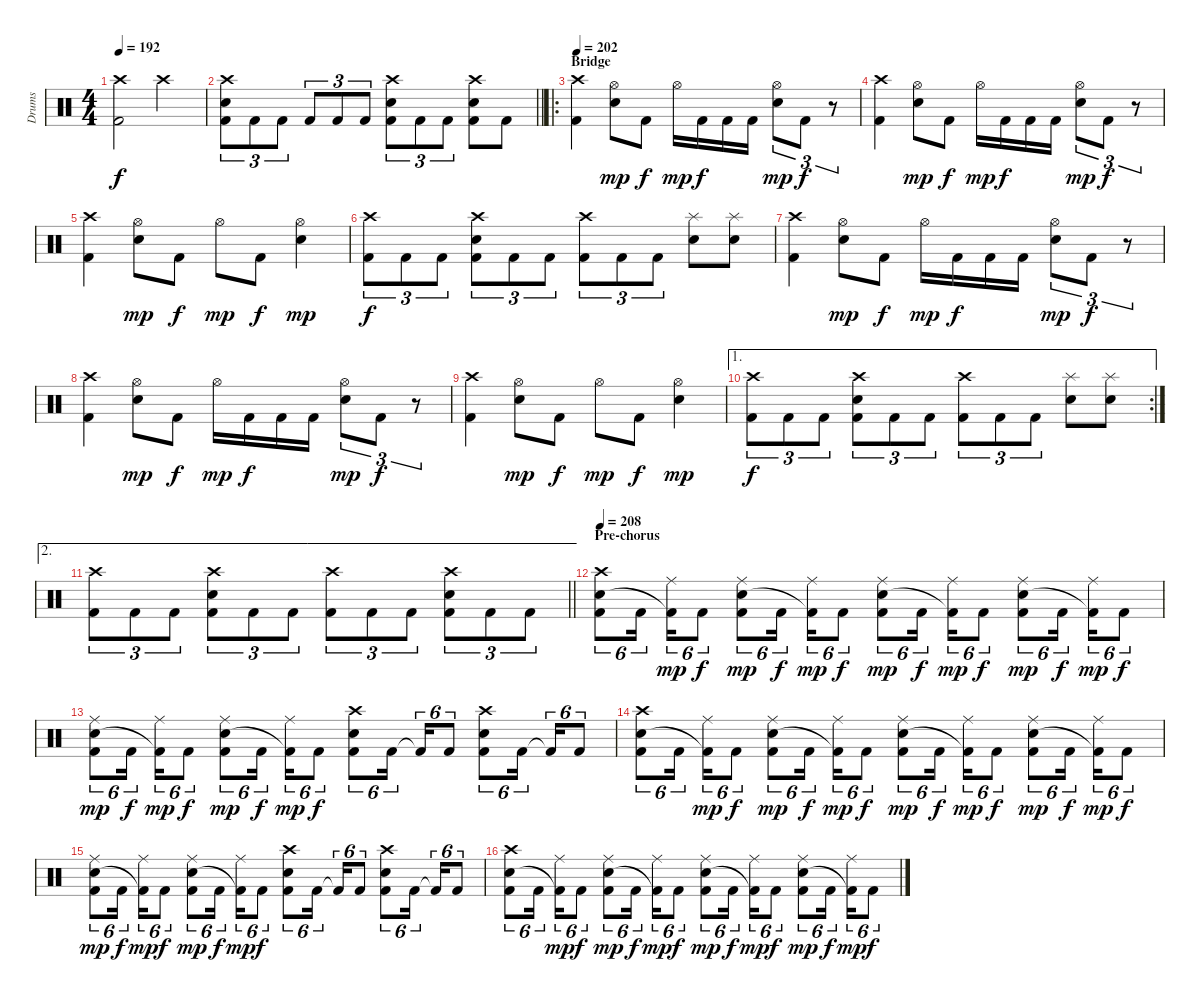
\track ("Drums" "Drums") {instrument percussion}
\staff {score}
\articulation defaults
\ts (4 4)
\tempo 192
\clef neutral
\ks c
("Crash high (hit)" "Kick (hit) 2").2{dy f} "Crash high (hit)".2 |
\barLineRight lightlight
("Crash high (hit)" "Electric Snare (hit)" "Kick (hit) 2").8{tu (3 2)} "Kick (hit) 2".8{tu (3 2)} "Kick (hit) 2".8{tu (3 2)} "Kick (hit) 2".8{tu (3 2)} "Kick (hit) 2".8{tu (3 2)} "Kick (hit) 2".8{tu (3 2)} ("Crash high (hit)" "Electric Snare (hit)" "Kick (hit) 2").8{tu (3 2)} "Kick (hit) 2".8{tu (3 2)} "Kick (hit) 2".8{tu (3 2)} ("Crash high (hit)" "Electric Snare (hit)" "Kick (hit) 2").8 "Kick (hit) 2".8 |
\ro
\section ("" "Bridge")
\tempo 202
("Crash high (hit)" "Kick (hit) 2").4 ("Hi-Hat (open)" "Electric Snare (hit)").8{dy mp} "Kick (hit) 2".8{dy f} "Hi-Hat (open)".16{dy mp} "Kick (hit) 2".16{dy f} "Kick (hit) 2".16 "Kick (hit) 2".16 ("Hi-Hat (open)" "Electric Snare (hit)").8{tu (3 2) dy mp} "Kick (hit) 2".8{tu (3 2) dy f} r.8{tu (3 2)} |
("Crash high (hit)" "Kick (hit) 2").4 ("Hi-Hat (open)" "Electric Snare (hit)").8{dy mp} "Kick (hit) 2".8{dy f} "Hi-Hat (open)".16{dy mp} "Kick (hit) 2".16{dy f} "Kick (hit) 2".16 "Kick (hit) 2".16 ("Hi-Hat (open)" "Electric Snare (hit)").8{tu (3 2) dy mp} "Kick (hit) 2".8{tu (3 2) dy f} r.8{tu (3 2)} |
("Crash high (hit)" "Kick (hit) 2").4 ("Hi-Hat (open)" "Electric Snare (hit)").8{dy mp} "Kick (hit) 2".8{dy f} "Hi-Hat (open)".8{dy mp} "Kick (hit) 2".8{dy f} ("Hi-Hat (open)" "Electric Snare (hit)").4{dy mp} |
("Crash high (hit)" "Kick (hit) 2").8{tu (3 2) dy f} "Kick (hit) 2".8{tu (3 2)} "Kick (hit) 2".8{tu (3 2)} ("Crash high (hit)" "Electric Snare (hit)" "Kick (hit) 2").8{tu (3 2)} "Kick (hit) 2".8{tu (3 2)} "Kick (hit) 2".8{tu (3 2)} ("Crash high (hit)" "Kick (hit) 2").8{tu (3 2)} "Kick (hit) 2".8{tu (3 2)} "Kick (hit) 2".8{tu (3 2)} ("Splash (hit)" "Electric Snare (hit)").8 ("Splash (hit)" "Electric Snare (hit)").8 |
("Crash high (hit)" "Kick (hit) 2").4 ("Hi-Hat (open)" "Electric Snare (hit)").8{dy mp} "Kick (hit) 2".8{dy f} "Hi-Hat (open)".16{dy mp} "Kick (hit) 2".16{dy f} "Kick (hit) 2".16 "Kick (hit) 2".16 ("Hi-Hat (open)" "Electric Snare (hit)").8{tu (3 2) dy mp} "Kick (hit) 2".8{tu (3 2) dy f} r.8{tu (3 2)} |
("Crash high (hit)" "Kick (hit) 2").4 ("Hi-Hat (open)" "Electric Snare (hit)").8{dy mp} "Kick (hit) 2".8{dy f} "Hi-Hat (open)".16{dy mp} "Kick (hit) 2".16{dy f} "Kick (hit) 2".16 "Kick (hit) 2".16 ("Hi-Hat (open)" "Electric Snare (hit)").8{tu (3 2) dy mp} "Kick (hit) 2".8{tu (3 2) dy f} r.8{tu (3 2)} |
("Crash high (hit)" "Kick (hit) 2").4 ("Hi-Hat (open)" "Electric Snare (hit)").8{dy mp} "Kick (hit) 2".8{dy f} "Hi-Hat (open)".8{dy mp} "Kick (hit) 2".8{dy f} ("Hi-Hat (open)" "Electric Snare (hit)").4{dy mp} |
\ae 1
\rc 2
("Crash high (hit)" "Kick (hit) 2").8{tu (3 2) dy f} "Kick (hit) 2".8{tu (3 2)} "Kick (hit) 2".8{tu (3 2)} ("Crash high (hit)" "Electric Snare (hit)" "Kick (hit) 2").8{tu (3 2)} "Kick (hit) 2".8{tu (3 2)} "Kick (hit) 2".8{tu (3 2)} ("Crash high (hit)" "Kick (hit) 2").8{tu (3 2)} "Kick (hit) 2".8{tu (3 2)} "Kick (hit) 2".8{tu (3 2)} ("Splash (hit)" "Electric Snare (hit)").8 ("Splash (hit)" "Electric Snare (hit)").8 |
\ae 2
\barLineRight lightlight
("Crash high (hit)" "Kick (hit) 2").8{tu (3 2)} "Kick (hit) 2".8{tu (3 2)} "Kick (hit) 2".8{tu (3 2)} ("Crash high (hit)" "Electric Snare (hit)" "Kick (hit) 2").8{tu (3 2)} "Kick (hit) 2".8{tu (3 2)} "Kick (hit) 2".8{tu (3 2)} ("Crash high (hit)" "Kick (hit) 2").8{tu (3 2)} "Kick (hit) 2".8{tu (3 2)} "Kick (hit) 2".8{tu (3 2)} ("Crash high (hit)" "Electric Snare (hit)" "Kick (hit) 2").8{tu (3 2)} "Kick (hit) 2".8{tu (3 2)} "Kick (hit) 2".8{tu (3 2)} |
\section ("" "Pre-chorus")
\tempo 208
("Crash high (hit)" "Electric Snare (hit)" "Kick (hit) 2").8{tu (6 4)} "Kick (hit) 2".16{tu (6 4)} ("Ride (middle)" "Kick (hit) 2"{t}).16{tu (6 4) dy mp} "Kick (hit) 2".8{tu (6 4) dy f} ("Ride (middle)" "Electric Snare (hit)" "Kick (hit) 2").8{tu (6 4) dy mp} "Kick (hit) 2".16{tu (6 4) dy f} ("Ride (middle)" "Kick (hit) 2"{t}).16{tu (6 4) dy mp} "Kick (hit) 2".8{tu (6 4) dy f} ("Ride (middle)" "Electric Snare (hit)" "Kick (hit) 2").8{tu (6 4) dy mp} "Kick (hit) 2".16{tu (6 4) dy f} ("Ride (middle)" "Kick (hit) 2"{t}).16{tu (6 4) dy mp} "Kick (hit) 2".8{tu (6 4) dy f} ("Ride (middle)" "Electric Snare (hit)" "Kick (hit) 2").8{tu (6 4) dy mp} "Kick (hit) 2".16{tu (6 4) dy f} ("Ride (middle)" "Kick (hit) 2"{t}).16{tu (6 4) dy mp} "Kick (hit) 2".8{tu (6 4) dy f} |
("Ride (middle)" "Electric Snare (hit)" "Kick (hit) 2").8{tu (6 4) dy mp} "Kick (hit) 2".16{tu (6 4) dy f} ("Ride (middle)" "Kick (hit) 2"{t}).16{tu (6 4) dy mp} "Kick (hit) 2".8{tu (6 4) dy f} ("Ride (middle)" "Electric Snare (hit)" "Kick (hit) 2").8{tu (6 4) dy mp} "Kick (hit) 2".16{tu (6 4) dy f} ("Ride (middle)" "Kick (hit) 2"{t}).16{tu (6 4) dy mp} "Kick (hit) 2".8{tu (6 4) dy f} ("Crash high (hit)" "Electric Snare (hit)" "Kick (hit) 2").8{tu (6 4)} "Kick (hit) 2".16{tu (6 4)} "Kick (hit) 2"{t}.16{tu (6 4)} "Kick (hit) 2".8{tu (6 4)} ("Crash high (hit)" "Electric Snare (hit)" "Kick (hit) 2").8{tu (6 4)} "Kick (hit) 2".16{tu (6 4)} "Kick (hit) 2"{t}.16{tu (6 4)} "Kick (hit) 2".8{tu (6 4)} |
("Crash high (hit)" "Electric Snare (hit)" "Kick (hit) 2").8{tu (6 4)} "Kick (hit) 2".16{tu (6 4)} ("Ride (middle)" "Kick (hit) 2"{t}).16{tu (6 4) dy mp} "Kick (hit) 2".8{tu (6 4) dy f} ("Ride (middle)" "Electric Snare (hit)" "Kick (hit) 2").8{tu (6 4) dy mp} "Kick (hit) 2".16{tu (6 4) dy f} ("Ride (middle)" "Kick (hit) 2"{t}).16{tu (6 4) dy mp} "Kick (hit) 2".8{tu (6 4) dy f} ("Ride (middle)" "Electric Snare (hit)" "Kick (hit) 2").8{tu (6 4) dy mp} "Kick (hit) 2".16{tu (6 4) dy f} ("Ride (middle)" "Kick (hit) 2"{t}).16{tu (6 4) dy mp} "Kick (hit) 2".8{tu (6 4) dy f} ("Ride (middle)" "Electric Snare (hit)" "Kick (hit) 2").8{tu (6 4) dy mp} "Kick (hit) 2".16{tu (6 4) dy f} ("Ride (middle)" "Kick (hit) 2"{t}).16{tu (6 4) dy mp} "Kick (hit) 2".8{tu (6 4) dy f} |
("Ride (middle)" "Electric Snare (hit)" "Kick (hit) 2").8{tu (6 4) dy mp} "Kick (hit) 2".16{tu (6 4) dy f} ("Ride (middle)" "Kick (hit) 2"{t}).16{tu (6 4) dy mp} "Kick (hit) 2".8{tu (6 4) dy f} ("Ride (middle)" "Electric Snare (hit)" "Kick (hit) 2").8{tu (6 4) dy mp} "Kick (hit) 2".16{tu (6 4) dy f} ("Ride (middle)" "Kick (hit) 2"{t}).16{tu (6 4) dy mp} "Kick (hit) 2".8{tu (6 4) dy f} ("Crash high (hit)" "Electric Snare (hit)" "Kick (hit) 2").8{tu (6 4)} "Kick (hit) 2".16{tu (6 4)} "Kick (hit) 2"{t}.16{tu (6 4)} "Kick (hit) 2".8{tu (6 4)} ("Crash high (hit)" "Electric Snare (hit)" "Kick (hit) 2").8{tu (6 4)} "Kick (hit) 2".16{tu (6 4)} "Kick (hit) 2"{t}.16{tu (6 4)} "Kick (hit) 2".8{tu (6 4)} |
("Crash high (hit)" "Electric Snare (hit)" "Kick (hit) 2").8{tu (6 4)} "Kick (hit) 2".16{tu (6 4)} ("Ride (middle)" "Kick (hit) 2"{t}).16{tu (6 4) dy mp} "Kick (hit) 2".8{tu (6 4) dy f} ("Ride (middle)" "Electric Snare (hit)" "Kick (hit) 2").8{tu (6 4) dy mp} "Kick (hit) 2".16{tu (6 4) dy f} ("Ride (middle)" "Kick (hit) 2"{t}).16{tu (6 4) dy mp} "Kick (hit) 2".8{tu (6 4) dy f} ("Ride (middle)" "Electric Snare (hit)" "Kick (hit) 2").8{tu (6 4) dy mp} "Kick (hit) 2".16{tu (6 4) dy f} ("Ride (middle)" "Kick (hit) 2"{t}).16{tu (6 4) dy mp} "Kick (hit) 2".8{tu (6 4) dy f} ("Ride (middle)" "Electric Snare (hit)" "Kick (hit) 2").8{tu (6 4) dy mp} "Kick (hit) 2".16{tu (6 4) dy f} ("Ride (middle)" "Kick (hit) 2"{t}).16{tu (6 4) dy mp} "Kick (hit) 2".8{tu (6 4) dy f}
